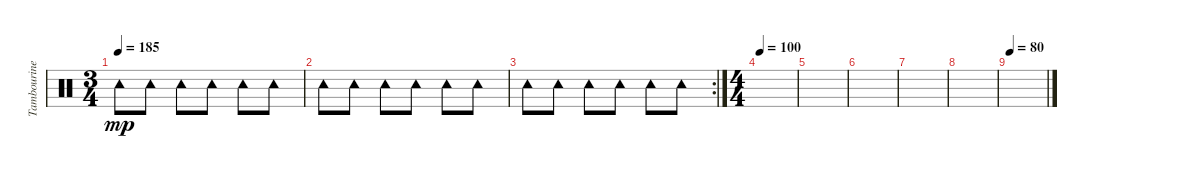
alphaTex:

\track ("Tambourine" "Tambourine") {instrument percussion}
\staff {score}
\articulation defaults
\ts (3 4)
\tempo 185
\clef neutral
\ks c "Tambourine (hit)".8{dy mp} "Tambourine (hit)".8 "Tambourine (hit)".8 "Tambourine (hit)".8 "Tambourine (hit)".8 "Tambourine (hit)".8
|
"Tambourine (hit)".8 "Tambourine (hit)".8 "Tambourine (hit)".8 "Tambourine (hit)".8 "Tambourine (hit)".8 "Tambourine (hit)".8 |
\rc 2 "Tambourine (hit)".8 "Tambourine (hit)".8 "Tambourine (hit)".8 "Tambourine (hit)".8 "Tambourine (hit)".8 "Tambourine (hit)".8
|
\ts (4 4)
\tempo 100
|
|
|
|
|
\tempo 80
